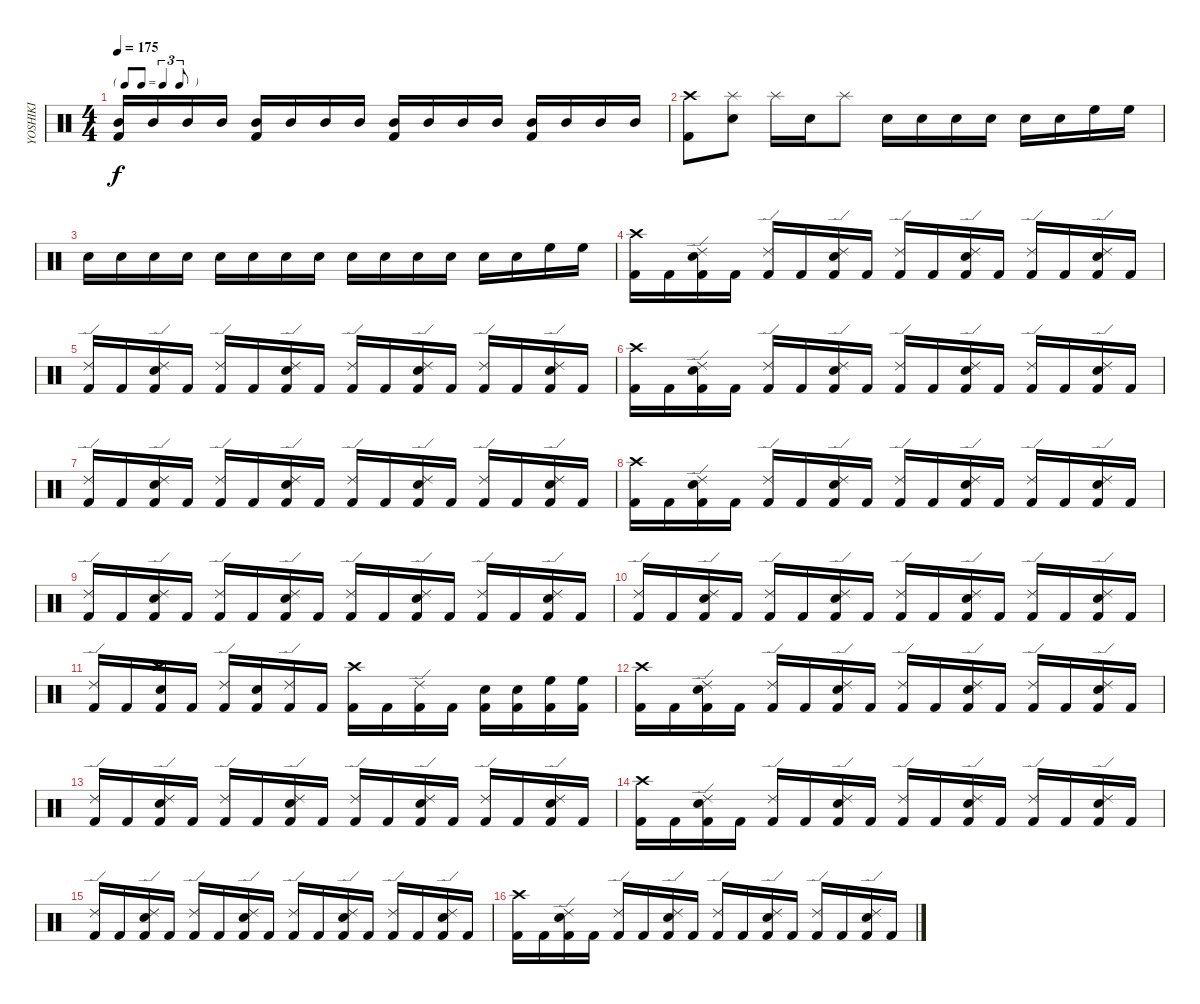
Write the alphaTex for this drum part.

\track ("YOSHIKI" "YOSHIKI") {instrument percussion}
\staff {score}
\articulation defaults
\ts (4 4)
\tf triplet8th
\tempo 175
\clef neutral
\ks c
("Mid Tom (hit)" "Kick (hit) 2").16{dy f} "Mid Tom (hit)".16 "Mid Tom (hit)".16 "Mid Tom (hit)".16 ("Mid Tom (hit)" "Kick (hit) 2").16 "Mid Tom (hit)".16 "Mid Tom (hit)".16 "Mid Tom (hit)".16 ("Mid Tom (hit)" "Kick (hit) 2").16 "Mid Tom (hit)".16 "Mid Tom (hit)".16 "Mid Tom (hit)".16 ("Mid Tom (hit)" "Kick (hit) 2").16 "Mid Tom (hit)".16 "Mid Tom (hit)".16 "Mid Tom (hit)".16 |
("Crash high (hit)" "Kick (hit) 2").8 ("Splash (hit)" "Snare (hit) 2").8 "Splash (hit)".16 "Snare (hit) 2".16 "Splash (hit)".8 "Snare (hit) 2".16 "Snare (hit) 2".16 "Snare (hit) 2".16 "Snare (hit) 2".16 "Snare (hit) 2".16 "Snare (hit) 2".16 "High Floor Tom (hit)".16 "High Floor Tom (hit)".16 |
"Snare (hit) 2".16 "Snare (hit) 2".16 "Snare (hit) 2".16 "Snare (hit) 2".16 "Snare (hit) 2".16 "Snare (hit) 2".16 "Snare (hit) 2".16 "Snare (hit) 2".16 "Snare (hit) 2".16 "Snare (hit) 2".16 "Snare (hit) 2".16 "Snare (hit) 2".16 "Snare (hit) 2".16 "Snare (hit) 2".16 "High Floor Tom (hit)".16 "High Floor Tom (hit)".16 |
("Crash high (hit)" "Kick (hit) 2").16 "Kick (hit) 2".16 ("Ride (edge) 2" "Snare (hit) 2" "Kick (hit) 2").16 "Kick (hit) 2".16 ("Ride (edge) 2" "Kick (hit) 2").16 "Kick (hit) 2".16 ("Ride (edge) 2" "Snare (hit) 2" "Kick (hit) 2").16 "Kick (hit) 2".16 ("Ride (edge) 2" "Kick (hit) 2").16 "Kick (hit) 2".16 ("Ride (edge) 2" "Snare (hit) 2" "Kick (hit) 2").16 "Kick (hit) 2".16 ("Ride (edge) 2" "Kick (hit) 2").16 "Kick (hit) 2".16 ("Ride (edge) 2" "Snare (hit) 2" "Kick (hit) 2").16 "Kick (hit) 2".16 |
("Ride (edge) 2" "Kick (hit) 2").16 "Kick (hit) 2".16 ("Ride (edge) 2" "Snare (hit) 2" "Kick (hit) 2").16 "Kick (hit) 2".16 ("Ride (edge) 2" "Kick (hit) 2").16 "Kick (hit) 2".16 ("Ride (edge) 2" "Snare (hit) 2" "Kick (hit) 2").16 "Kick (hit) 2".16 ("Ride (edge) 2" "Kick (hit) 2").16 "Kick (hit) 2".16 ("Ride (edge) 2" "Snare (hit) 2" "Kick (hit) 2").16 "Kick (hit) 2".16 ("Ride (edge) 2" "Kick (hit) 2").16 "Kick (hit) 2".16 ("Ride (edge) 2" "Snare (hit) 2" "Kick (hit) 2").16 "Kick (hit) 2".16 |
("Crash high (hit)" "Kick (hit) 2").16 "Kick (hit) 2".16 ("Ride (edge) 2" "Snare (hit) 2" "Kick (hit) 2").16 "Kick (hit) 2".16 ("Ride (edge) 2" "Kick (hit) 2").16 "Kick (hit) 2".16 ("Ride (edge) 2" "Snare (hit) 2" "Kick (hit) 2").16 "Kick (hit) 2".16 ("Ride (edge) 2" "Kick (hit) 2").16 "Kick (hit) 2".16 ("Ride (edge) 2" "Snare (hit) 2" "Kick (hit) 2").16 "Kick (hit) 2".16 ("Ride (edge) 2" "Kick (hit) 2").16 "Kick (hit) 2".16 ("Ride (edge) 2" "Snare (hit) 2" "Kick (hit) 2").16 "Kick (hit) 2".16 |
("Ride (edge) 2" "Kick (hit) 2").16 "Kick (hit) 2".16 ("Ride (edge) 2" "Snare (hit) 2" "Kick (hit) 2").16 "Kick (hit) 2".16 ("Ride (edge) 2" "Kick (hit) 2").16 "Kick (hit) 2".16 ("Ride (edge) 2" "Snare (hit) 2" "Kick (hit) 2").16 "Kick (hit) 2".16 ("Ride (edge) 2" "Kick (hit) 2").16 "Kick (hit) 2".16 ("Ride (edge) 2" "Snare (hit) 2" "Kick (hit) 2").16 "Kick (hit) 2".16 ("Ride (edge) 2" "Kick (hit) 2").16 "Kick (hit) 2".16 ("Ride (edge) 2" "Snare (hit) 2" "Kick (hit) 2").16 "Kick (hit) 2".16 |
("Crash high (hit)" "Kick (hit) 2").16 "Kick (hit) 2".16 ("Ride (edge) 2" "Snare (hit) 2" "Kick (hit) 2").16 "Kick (hit) 2".16 ("Ride (edge) 2" "Kick (hit) 2").16 "Kick (hit) 2".16 ("Ride (edge) 2" "Snare (hit) 2" "Kick (hit) 2").16 "Kick (hit) 2".16 ("Ride (edge) 2" "Kick (hit) 2").16 "Kick (hit) 2".16 ("Ride (edge) 2" "Snare (hit) 2" "Kick (hit) 2").16 "Kick (hit) 2".16 ("Ride (edge) 2" "Kick (hit) 2").16 "Kick (hit) 2".16 ("Ride (edge) 2" "Snare (hit) 2" "Kick (hit) 2").16 "Kick (hit) 2".16 |
("Ride (edge) 2" "Kick (hit) 2").16 "Kick (hit) 2".16 ("Ride (edge) 2" "Snare (hit) 2" "Kick (hit) 2").16 "Kick (hit) 2".16 ("Ride (edge) 2" "Kick (hit) 2").16 "Kick (hit) 2".16 ("Ride (edge) 2" "Snare (hit) 2" "Kick (hit) 2").16 "Kick (hit) 2".16 ("Ride (edge) 2" "Kick (hit) 2").16 "Kick (hit) 2".16 ("Ride (edge) 2" "Snare (hit) 2" "Kick (hit) 2").16 "Kick (hit) 2".16 ("Ride (edge) 2" "Kick (hit) 2").16 "Kick (hit) 2".16 ("Ride (edge) 2" "Snare (hit) 2" "Kick (hit) 2").16 "Kick (hit) 2".16 |
("Ride (edge) 2" "Kick (hit) 2").16 "Kick (hit) 2".16 ("Ride (edge) 2" "Snare (hit) 2" "Kick (hit) 2").16 "Kick (hit) 2".16 ("Ride (edge) 2" "Kick (hit) 2").16 "Kick (hit) 2".16 ("Ride (edge) 2" "Snare (hit) 2" "Kick (hit) 2").16 "Kick (hit) 2".16 ("Ride (edge) 2" "Kick (hit) 2").16 "Kick (hit) 2".16 ("Ride (edge) 2" "Snare (hit) 2" "Kick (hit) 2").16 "Kick (hit) 2".16 ("Ride (edge) 2" "Kick (hit) 2").16 "Kick (hit) 2".16 ("Ride (edge) 2" "Snare (hit) 2" "Kick (hit) 2").16 "Kick (hit) 2".16 |
("Ride (edge) 2" "Kick (hit) 2").16 "Kick (hit) 2".16 ("Crash high (hit)" "Snare (hit) 2" "Kick (hit) 2").16 "Kick (hit) 2".16 ("Ride (edge) 2" "Kick (hit) 2").16 ("Snare (hit) 2" "Kick (hit) 2").16 ("Ride (edge) 2" "Kick (hit) 2").16 "Kick (hit) 2".16 ("Crash high (hit)" "Kick (hit) 2").16 "Kick (hit) 2".16 ("Ride (edge) 2" "Kick (hit) 2").16 "Kick (hit) 2".16 ("Snare (hit) 2" "Kick (hit) 2").16 ("Snare (hit) 2" "Kick (hit) 2").16 ("High Floor Tom (hit)" "Kick (hit) 2").16 ("High Floor Tom (hit)" "Kick (hit) 2").16 |
("Crash high (hit)" "Kick (hit) 2").16 "Kick (hit) 2".16 ("Ride (edge) 2" "Snare (hit) 2" "Kick (hit) 2").16 "Kick (hit) 2".16 ("Ride (edge) 2" "Kick (hit) 2").16 "Kick (hit) 2".16 ("Ride (edge) 2" "Snare (hit) 2" "Kick (hit) 2").16 "Kick (hit) 2".16 ("Ride (edge) 2" "Kick (hit) 2").16 "Kick (hit) 2".16 ("Ride (edge) 2" "Snare (hit) 2" "Kick (hit) 2").16 "Kick (hit) 2".16 ("Ride (edge) 2" "Kick (hit) 2").16 "Kick (hit) 2".16 ("Ride (edge) 2" "Snare (hit) 2" "Kick (hit) 2").16 "Kick (hit) 2".16 |
("Ride (edge) 2" "Kick (hit) 2").16 "Kick (hit) 2".16 ("Ride (edge) 2" "Snare (hit) 2" "Kick (hit) 2").16 "Kick (hit) 2".16 ("Ride (edge) 2" "Kick (hit) 2").16 "Kick (hit) 2".16 ("Ride (edge) 2" "Snare (hit) 2" "Kick (hit) 2").16 "Kick (hit) 2".16 ("Ride (edge) 2" "Kick (hit) 2").16 "Kick (hit) 2".16 ("Ride (edge) 2" "Snare (hit) 2" "Kick (hit) 2").16 "Kick (hit) 2".16 ("Ride (edge) 2" "Kick (hit) 2").16 "Kick (hit) 2".16 ("Ride (edge) 2" "Snare (hit) 2" "Kick (hit) 2").16 "Kick (hit) 2".16 |
("Crash high (hit)" "Kick (hit) 2").16 "Kick (hit) 2".16 ("Ride (edge) 2" "Snare (hit) 2" "Kick (hit) 2").16 "Kick (hit) 2".16 ("Ride (edge) 2" "Kick (hit) 2").16 "Kick (hit) 2".16 ("Ride (edge) 2" "Snare (hit) 2" "Kick (hit) 2").16 "Kick (hit) 2".16 ("Ride (edge) 2" "Kick (hit) 2").16 "Kick (hit) 2".16 ("Ride (edge) 2" "Snare (hit) 2" "Kick (hit) 2").16 "Kick (hit) 2".16 ("Ride (edge) 2" "Kick (hit) 2").16 "Kick (hit) 2".16 ("Ride (edge) 2" "Snare (hit) 2" "Kick (hit) 2").16 "Kick (hit) 2".16 |
("Ride (edge) 2" "Kick (hit) 2").16 "Kick (hit) 2".16 ("Ride (edge) 2" "Snare (hit) 2" "Kick (hit) 2").16 "Kick (hit) 2".16 ("Ride (edge) 2" "Kick (hit) 2").16 "Kick (hit) 2".16 ("Ride (edge) 2" "Snare (hit) 2" "Kick (hit) 2").16 "Kick (hit) 2".16 ("Ride (edge) 2" "Kick (hit) 2").16 "Kick (hit) 2".16 ("Ride (edge) 2" "Snare (hit) 2" "Kick (hit) 2").16 "Kick (hit) 2".16 ("Ride (edge) 2" "Kick (hit) 2").16 "Kick (hit) 2".16 ("Ride (edge) 2" "Snare (hit) 2" "Kick (hit) 2").16 "Kick (hit) 2".16 |
("Crash high (hit)" "Kick (hit) 2").16 "Kick (hit) 2".16 ("Ride (edge) 2" "Snare (hit) 2" "Kick (hit) 2").16 "Kick (hit) 2".16 ("Ride (edge) 2" "Kick (hit) 2").16 "Kick (hit) 2".16 ("Ride (edge) 2" "Snare (hit) 2" "Kick (hit) 2").16 "Kick (hit) 2".16 ("Ride (edge) 2" "Kick (hit) 2").16 "Kick (hit) 2".16 ("Ride (edge) 2" "Snare (hit) 2" "Kick (hit) 2").16 "Kick (hit) 2".16 ("Ride (edge) 2" "Kick (hit) 2").16 "Kick (hit) 2".16 ("Ride (edge) 2" "Snare (hit) 2" "Kick (hit) 2").16 "Kick (hit) 2".16
